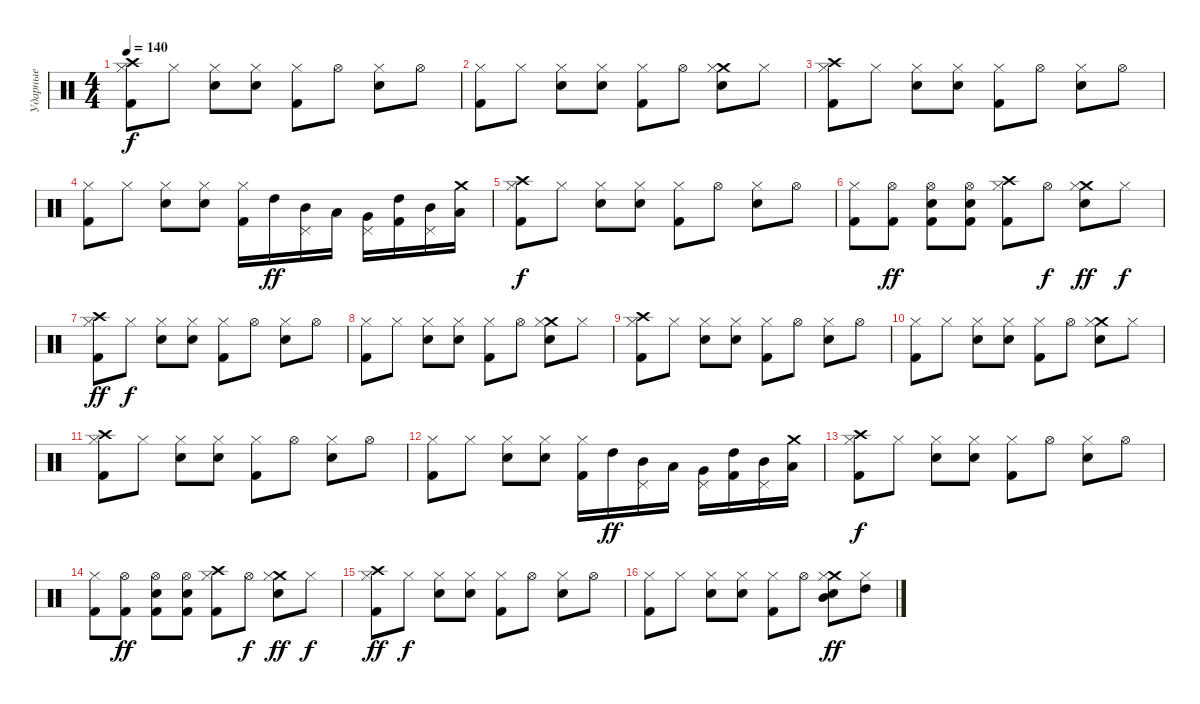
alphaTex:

\track ("Ударные" "Ударные") {instrument percussion}
\staff {score}
\articulation defaults
\ts (4 4)
\tempo 140
\clef neutral
\ks c
("Crash high (hit)" "Hi-Hat (closed)" "Kick (hit) 2").8{dy f} "Hi-Hat (closed)".8 ("Hi-Hat (closed)" "Snare (hit) 2").8 ("Hi-Hat (closed)" "Snare (hit) 2").8 ("Hi-Hat (closed)" "Kick (hit) 2").8 "Hi-Hat (open)".8 ("Hi-Hat (closed)" "Snare (hit) 2").8 "Hi-Hat (open)".8 |
("Hi-Hat (closed)" "Kick (hit) 2").8 "Hi-Hat (closed)".8 ("Hi-Hat (closed)" "Snare (hit) 2").8 ("Hi-Hat (closed)" "Snare (hit) 2").8 ("Hi-Hat (closed)" "Kick (hit) 2").8 "Hi-Hat (open)".8 ("Crash medium (hit)" "Hi-Hat (closed)" "Snare (hit) 2").8 "Hi-Hat (closed)".8 |
("Crash high (hit)" "Hi-Hat (closed)" "Kick (hit) 2").8 "Hi-Hat (closed)".8 ("Hi-Hat (closed)" "Snare (hit) 2").8 ("Hi-Hat (closed)" "Snare (hit) 2").8 ("Hi-Hat (closed)" "Kick (hit) 2").8 "Hi-Hat (open)".8 ("Hi-Hat (closed)" "Snare (hit) 2").8 "Hi-Hat (open)".8 |
("Hi-Hat (closed)" "Kick (hit) 2").8 "Hi-Hat (closed)".8 ("Hi-Hat (closed)" "Snare (hit) 2").8 ("Hi-Hat (closed)" "Snare (hit) 2").8 ("Hi-Hat (closed)" "Kick (hit) 2").16 "High Tom (hit)".16{dy ff} ("Mid Tom (hit)" "Pedal Hi-Hat (hit)").16 "Low Tom (hit)".16 ("Very Low Tom (hit)" "Pedal Hi-Hat (hit)").16 ("High Tom (hit)" "Kick (hit) 2").16 ("Mid Tom (hit)" "Pedal Hi-Hat (hit)").16 ("Low Floor Tom (hit)" "Crash medium (hit)").16 |
("Crash high (hit)" "Hi-Hat (closed)" "Kick (hit) 2").8{dy f} "Hi-Hat (closed)".8 ("Hi-Hat (closed)" "Snare (hit) 2").8 ("Hi-Hat (closed)" "Snare (hit) 2").8 ("Hi-Hat (closed)" "Kick (hit) 2").8 "Hi-Hat (open)".8 ("Hi-Hat (closed)" "Snare (hit) 2").8 "Hi-Hat (open)".8 |
("Hi-Hat (closed)" "Kick (hit) 2").8 ("Kick (hit) 2" "Hi-Hat (open)").8{dy ff} ("Kick (hit) 2" "Hi-Hat (open)" "Snare (hit) 2").8 ("Kick (hit) 2" "Hi-Hat (open)" "Snare (hit) 2").8 ("Crash high (hit)" "Hi-Hat (closed)" "Kick (hit) 2").8 "Hi-Hat (open)".8{dy f} ("Crash medium (hit)" "Hi-Hat (closed)" "Snare (hit) 2").8{dy ff} "Hi-Hat (closed)".8{dy f} |
("Crash high (hit)" "Hi-Hat (closed)" "Kick (hit) 2").8{dy ff} "Hi-Hat (closed)".8{dy f} ("Hi-Hat (closed)" "Snare (hit) 2").8 ("Hi-Hat (closed)" "Snare (hit) 2").8 ("Hi-Hat (closed)" "Kick (hit) 2").8 "Hi-Hat (open)".8 ("Hi-Hat (closed)" "Snare (hit) 2").8 "Hi-Hat (open)".8 |
("Hi-Hat (closed)" "Kick (hit) 2").8 "Hi-Hat (closed)".8 ("Hi-Hat (closed)" "Snare (hit) 2").8 ("Hi-Hat (closed)" "Snare (hit) 2").8 ("Hi-Hat (closed)" "Kick (hit) 2").8 "Hi-Hat (open)".8 ("Crash medium (hit)" "Hi-Hat (closed)" "Snare (hit) 2").8 "Hi-Hat (closed)".8 |
("Crash high (hit)" "Hi-Hat (closed)" "Kick (hit) 2").8 "Hi-Hat (closed)".8 ("Hi-Hat (closed)" "Snare (hit) 2").8 ("Hi-Hat (closed)" "Snare (hit) 2").8 ("Hi-Hat (closed)" "Kick (hit) 2").8 "Hi-Hat (open)".8 ("Hi-Hat (closed)" "Snare (hit) 2").8 "Hi-Hat (open)".8 |
("Hi-Hat (closed)" "Kick (hit) 2").8 "Hi-Hat (closed)".8 ("Hi-Hat (closed)" "Snare (hit) 2").8 ("Hi-Hat (closed)" "Snare (hit) 2").8 ("Hi-Hat (closed)" "Kick (hit) 2").8 "Hi-Hat (open)".8 ("Crash medium (hit)" "Hi-Hat (closed)" "Snare (hit) 2").8 "Hi-Hat (closed)".8 |
("Crash high (hit)" "Hi-Hat (closed)" "Kick (hit) 2").8 "Hi-Hat (closed)".8 ("Hi-Hat (closed)" "Snare (hit) 2").8 ("Hi-Hat (closed)" "Snare (hit) 2").8 ("Hi-Hat (closed)" "Kick (hit) 2").8 "Hi-Hat (open)".8 ("Hi-Hat (closed)" "Snare (hit) 2").8 "Hi-Hat (open)".8 |
("Hi-Hat (closed)" "Kick (hit) 2").8 "Hi-Hat (closed)".8 ("Hi-Hat (closed)" "Snare (hit) 2").8 ("Hi-Hat (closed)" "Snare (hit) 2").8 ("Hi-Hat (closed)" "Kick (hit) 2").16 "High Tom (hit)".16{dy ff} ("Mid Tom (hit)" "Pedal Hi-Hat (hit)").16 "Low Tom (hit)".16 ("Very Low Tom (hit)" "Pedal Hi-Hat (hit)").16 ("High Tom (hit)" "Kick (hit) 2").16 ("Mid Tom (hit)" "Pedal Hi-Hat (hit)").16 ("Low Floor Tom (hit)" "Crash medium (hit)").16 |
("Crash high (hit)" "Hi-Hat (closed)" "Kick (hit) 2").8{dy f} "Hi-Hat (closed)".8 ("Hi-Hat (closed)" "Snare (hit) 2").8 ("Hi-Hat (closed)" "Snare (hit) 2").8 ("Hi-Hat (closed)" "Kick (hit) 2").8 "Hi-Hat (open)".8 ("Hi-Hat (closed)" "Snare (hit) 2").8 "Hi-Hat (open)".8 |
("Hi-Hat (closed)" "Kick (hit) 2").8 ("Kick (hit) 2" "Hi-Hat (open)").8{dy ff} ("Kick (hit) 2" "Hi-Hat (open)" "Snare (hit) 2").8 ("Kick (hit) 2" "Hi-Hat (open)" "Snare (hit) 2").8 ("Crash high (hit)" "Hi-Hat (closed)" "Kick (hit) 2").8 "Hi-Hat (open)".8{dy f} ("Crash medium (hit)" "Hi-Hat (closed)" "Snare (hit) 2").8{dy ff} "Hi-Hat (closed)".8{dy f} |
("Crash high (hit)" "Hi-Hat (closed)" "Kick (hit) 2").8{dy ff} "Hi-Hat (closed)".8{dy f} ("Hi-Hat (closed)" "Snare (hit) 2").8 ("Hi-Hat (closed)" "Snare (hit) 2").8 ("Hi-Hat (closed)" "Kick (hit) 2").8 "Hi-Hat (open)".8 ("Hi-Hat (closed)" "Snare (hit) 2").8 "Hi-Hat (open)".8 |
("Hi-Hat (closed)" "Kick (hit) 2").8 "Hi-Hat (closed)".8 ("Hi-Hat (closed)" "Snare (hit) 2").8 ("Hi-Hat (closed)" "Snare (hit) 2").8 ("Hi-Hat (closed)" "Kick (hit) 2").8 "Hi-Hat (open)".8 ("Crash medium (hit)" "Hi-Hat (closed)" "Mid Tom (hit)" "Snare (hit) 2").8{dy ff} ("Hi-Hat (closed)" "High Tom (hit)").8
